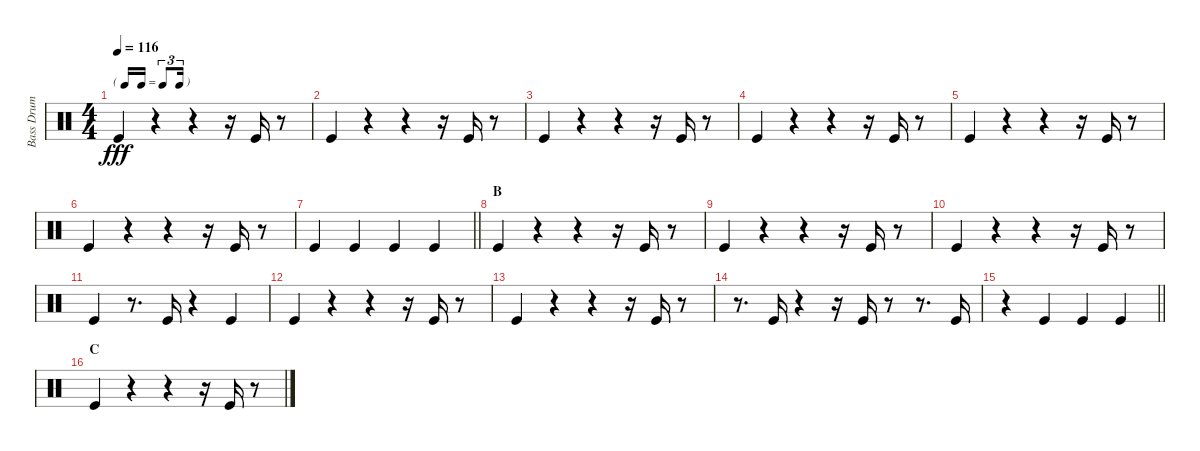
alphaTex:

\track ("Bass Drum" "Bass Drum") {instrument percussion}
\staff {score}
\articulation defaults
\ts (4 4)
\tf triplet16th
\tempo 116
\clef neutral
\ks c "Kick (hit)".4{dy fff}
r.4 r.4 r.16 "Kick (hit)".16 r.8 |
"Kick (hit)".4 r.4 r.4 r.16 "Kick (hit)".16 r.8 |
"Kick (hit)".4 r.4 r.4 r.16 "Kick (hit)".16 r.8 |
"Kick (hit)".4 r.4 r.4 r.16 "Kick (hit)".16 r.8 |
"Kick (hit)".4 r.4 r.4 r.16 "Kick (hit)".16 r.8 |
"Kick (hit)".4 r.4 r.4 r.16 "Kick (hit)".16 r.8 |
\barLineRight lightlight "Kick (hit)".4 "Kick (hit)".4 "Kick (hit)".4 "Kick (hit)".4
|
\section ("" "B")
"Kick (hit)".4 r.4 r.4 r.16 "Kick (hit)".16 r.8 |
"Kick (hit)".4 r.4 r.4 r.16 "Kick (hit)".16 r.8 |
"Kick (hit)".4 r.4 r.4 r.16 "Kick (hit)".16 r.8 |
"Kick (hit)".4 r.8{d} "Kick (hit)".16 r.4 "Kick (hit)".4 |
"Kick (hit)".4 r.4 r.4 r.16 "Kick (hit)".16 r.8 |
"Kick (hit)".4 r.4 r.4 r.16 "Kick (hit)".16 r.8 |
r.8{d} "Kick (hit)".16 r.4 r.16 "Kick (hit)".16 r.8 r.8{d} "Kick (hit)".16 |
\barLineRight lightlight
r.4 "Kick (hit)".4 "Kick (hit)".4 "Kick (hit)".4 |
\section ("" "C")
"Kick (hit)".4 r.4 r.4 r.16 "Kick (hit)".16 r.8
